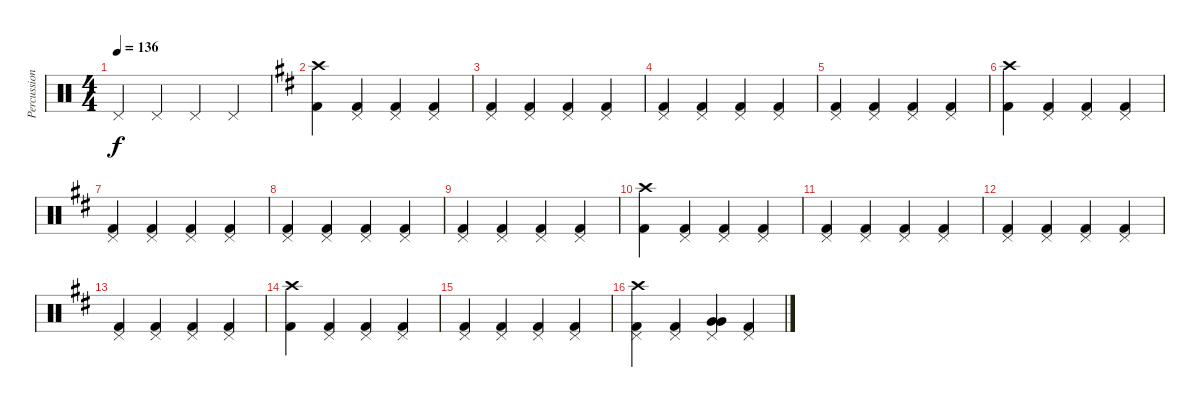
\track ("Percussions" "Percussion") {instrument percussion}
\staff {score}
\articulation defaults
\ts (4 4)
\tempo 136
\clef neutral
\ks c "Pedal Hi-Hat (hit)".4{dy f} "Pedal Hi-Hat (hit)".4 "Pedal Hi-Hat (hit)".4 "Pedal Hi-Hat (hit)".4
|
\ks d
("Kick (hit) 2" "Crash high (hit)").4 ("Kick (hit) 2" "Pedal Hi-Hat (hit)").4 ("Kick (hit) 2" "Pedal Hi-Hat (hit)").4 ("Kick (hit) 2" "Pedal Hi-Hat (hit)").4 |
("Kick (hit) 2" "Pedal Hi-Hat (hit)").4 ("Kick (hit) 2" "Pedal Hi-Hat (hit)").4 ("Kick (hit) 2" "Pedal Hi-Hat (hit)").4 ("Kick (hit) 2" "Pedal Hi-Hat (hit)").4 |
("Kick (hit) 2" "Pedal Hi-Hat (hit)").4 ("Kick (hit) 2" "Pedal Hi-Hat (hit)").4 ("Kick (hit) 2" "Pedal Hi-Hat (hit)").4 ("Kick (hit) 2" "Pedal Hi-Hat (hit)").4 |
("Kick (hit) 2" "Pedal Hi-Hat (hit)").4 ("Kick (hit) 2" "Pedal Hi-Hat (hit)").4 ("Kick (hit) 2" "Pedal Hi-Hat (hit)").4 ("Kick (hit) 2" "Pedal Hi-Hat (hit)").4 |
("Kick (hit) 2" "Crash high (hit)").4 ("Kick (hit) 2" "Pedal Hi-Hat (hit)").4 ("Kick (hit) 2" "Pedal Hi-Hat (hit)").4 ("Kick (hit) 2" "Pedal Hi-Hat (hit)").4 |
("Kick (hit) 2" "Pedal Hi-Hat (hit)").4 ("Kick (hit) 2" "Pedal Hi-Hat (hit)").4 ("Kick (hit) 2" "Pedal Hi-Hat (hit)").4 ("Kick (hit) 2" "Pedal Hi-Hat (hit)").4 |
("Kick (hit) 2" "Pedal Hi-Hat (hit)").4 ("Kick (hit) 2" "Pedal Hi-Hat (hit)").4 ("Kick (hit) 2" "Pedal Hi-Hat (hit)").4 ("Kick (hit) 2" "Pedal Hi-Hat (hit)").4 |
("Kick (hit) 2" "Pedal Hi-Hat (hit)").4 ("Kick (hit) 2" "Pedal Hi-Hat (hit)").4 ("Kick (hit) 2" "Pedal Hi-Hat (hit)").4 ("Kick (hit) 2" "Pedal Hi-Hat (hit)").4 |
("Kick (hit) 2" "Crash high (hit)").4 ("Kick (hit) 2" "Pedal Hi-Hat (hit)").4 ("Kick (hit) 2" "Pedal Hi-Hat (hit)").4 ("Kick (hit) 2" "Pedal Hi-Hat (hit)").4 |
("Kick (hit) 2" "Pedal Hi-Hat (hit)").4 ("Kick (hit) 2" "Pedal Hi-Hat (hit)").4 ("Kick (hit) 2" "Pedal Hi-Hat (hit)").4 ("Kick (hit) 2" "Pedal Hi-Hat (hit)").4 |
("Kick (hit) 2" "Pedal Hi-Hat (hit)").4 ("Kick (hit) 2" "Pedal Hi-Hat (hit)").4 ("Kick (hit) 2" "Pedal Hi-Hat (hit)").4 ("Kick (hit) 2" "Pedal Hi-Hat (hit)").4 |
("Kick (hit) 2" "Pedal Hi-Hat (hit)").4 ("Kick (hit) 2" "Pedal Hi-Hat (hit)").4 ("Kick (hit) 2" "Pedal Hi-Hat (hit)").4 ("Kick (hit) 2" "Pedal Hi-Hat (hit)").4 |
("Kick (hit) 2" "Crash high (hit)").4 ("Kick (hit) 2" "Pedal Hi-Hat (hit)").4 ("Kick (hit) 2" "Pedal Hi-Hat (hit)").4 ("Kick (hit) 2" "Pedal Hi-Hat (hit)").4 |
("Kick (hit) 2" "Pedal Hi-Hat (hit)").4 ("Kick (hit) 2" "Pedal Hi-Hat (hit)").4 ("Kick (hit) 2" "Pedal Hi-Hat (hit)").4 ("Kick (hit) 2" "Pedal Hi-Hat (hit)").4 |
("Kick (hit) 2" "Pedal Hi-Hat (hit)" "Crash high (hit)").4 ("Kick (hit) 2" "Pedal Hi-Hat (hit)").4 ("Pedal Hi-Hat (hit)" "Very Low Tom (hit)" "Very Low Tom (hit)").4 ("Kick (hit) 2" "Pedal Hi-Hat (hit)").4
